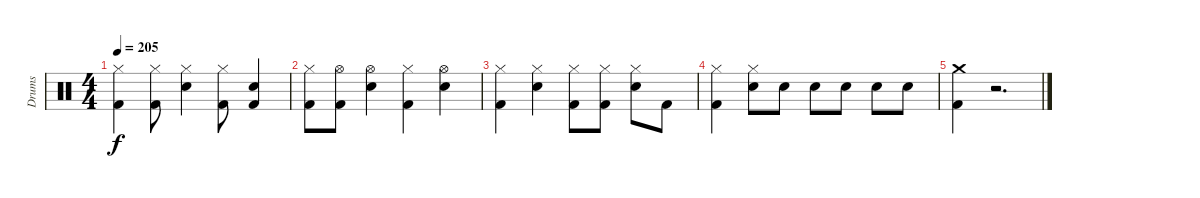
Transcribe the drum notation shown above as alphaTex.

\track ("Drums" "Drums") {instrument percussion}
\staff {score}
\articulation defaults
\ts (4 4)
\tempo 205
\clef neutral
\ks c
("Hi-Hat (closed)" "Kick (hit) 2").4{dy f} ("Hi-Hat (closed)" "Kick (hit) 2").8 ("Hi-Hat (closed)" "Electric Snare (hit)").4 ("Hi-Hat (closed)" "Kick (hit) 2").8 ("Electric Snare (hit)" "Kick (hit) 2").4 |
("Hi-Hat (closed)" "Kick (hit) 2").8 ("Hi-Hat (open)" "Kick (hit) 2").8 ("Hi-Hat (open)" "Electric Snare (hit)").4 ("Hi-Hat (closed)" "Kick (hit) 2").4 ("Hi-Hat (open)" "Electric Snare (hit)").4 |
("Hi-Hat (closed)" "Kick (hit) 2").4 ("Hi-Hat (closed)" "Electric Snare (hit)").4 ("Hi-Hat (closed)" "Kick (hit) 2").8 ("Hi-Hat (closed)" "Kick (hit) 2").8 ("Hi-Hat (closed)" "Electric Snare (hit)").8 "Kick (hit) 2".8 |
("Hi-Hat (closed)" "Kick (hit) 2").4 ("Hi-Hat (closed)" "Electric Snare (hit)").8 "Electric Snare (hit)".8 "Electric Snare (hit)".8 "Electric Snare (hit)".8 "Electric Snare (hit)".8 "Electric Snare (hit)".8 |
("Crash medium (hit)" "Kick (hit) 2").4 r.2{d}
